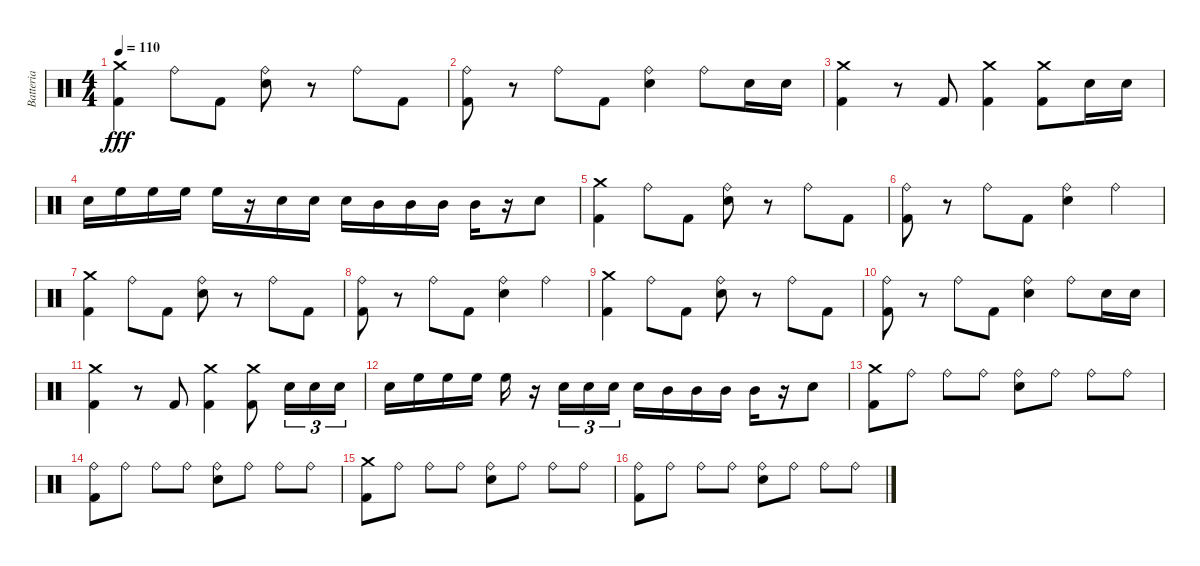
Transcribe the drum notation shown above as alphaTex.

\track ("Batteria" "Batteria") {instrument percussion}
\staff {score}
\articulation defaults
\ts (4 4)
\tempo 110
\clef neutral
\ks c
("Crash medium (hit)" "Kick (hit) 2").4{dy fff} "Ride (bell)".8 "Kick (hit) 2".8 ("Ride (bell)" "Electric Snare (hit)").8 r.8 "Ride (bell)".8 "Kick (hit) 2".8 |
("Ride (bell)" "Kick (hit) 2").8 r.8 "Ride (bell)".8 "Kick (hit) 2".8 ("Ride (bell)" "Electric Snare (hit)").4 "Ride (bell)".8 "Electric Snare (hit)".16 "Electric Snare (hit)".16 |
("Crash medium (hit)" "Kick (hit) 2").4 r.8 "Kick (hit) 2".8 ("Crash medium (hit)" "Kick (hit) 2").4 ("Crash medium (hit)" "Kick (hit) 2").8 "Electric Snare (hit)".16 "Electric Snare (hit)".16 |
"Electric Snare (hit)".16 "High Floor Tom (hit)".16 "High Floor Tom (hit)".16 "High Floor Tom (hit)".16 "High Floor Tom (hit)".16 r.16 "Electric Snare (hit)".16 "Electric Snare (hit)".16 "Electric Snare (hit)".16 "Mid Tom (hit)".16 "Mid Tom (hit)".16 "Mid Tom (hit)".16 "Mid Tom (hit)".16 r.16 "Electric Snare (hit)".8 |
("Crash medium (hit)" "Kick (hit) 2").4 "Ride (bell)".8 "Kick (hit) 2".8 ("Ride (bell)" "Electric Snare (hit)").8 r.8 "Ride (bell)".8 "Kick (hit) 2".8 |
("Ride (bell)" "Kick (hit) 2").8 r.8 "Ride (bell)".8 "Kick (hit) 2".8 ("Ride (bell)" "Electric Snare (hit)").4 "Ride (bell)".4 |
("Crash medium (hit)" "Kick (hit) 2").4 "Ride (bell)".8 "Kick (hit) 2".8 ("Ride (bell)" "Electric Snare (hit)").8 r.8 "Ride (bell)".8 "Kick (hit) 2".8 |
("Ride (bell)" "Kick (hit) 2").8 r.8 "Ride (bell)".8 "Kick (hit) 2".8 ("Ride (bell)" "Electric Snare (hit)").4 "Ride (bell)".4 |
("Crash medium (hit)" "Kick (hit) 2").4 "Ride (bell)".8 "Kick (hit) 2".8 ("Ride (bell)" "Electric Snare (hit)").8 r.8 "Ride (bell)".8 "Kick (hit) 2".8 |
("Ride (bell)" "Kick (hit) 2").8 r.8 "Ride (bell)".8 "Kick (hit) 2".8 ("Ride (bell)" "Electric Snare (hit)").4 "Ride (bell)".8 "Electric Snare (hit)".16 "Electric Snare (hit)".16 |
("Crash medium (hit)" "Kick (hit) 2").4 r.8 "Kick (hit) 2".8 ("Crash medium (hit)" "Kick (hit) 2").4 ("Crash medium (hit)" "Kick (hit) 2").8 "Electric Snare (hit)".16{tu (3 2)} "Electric Snare (hit)".16{tu (3 2)} "Electric Snare (hit)".16{tu (3 2)} |
"Electric Snare (hit)".16 "High Floor Tom (hit)".16 "High Floor Tom (hit)".16 "High Floor Tom (hit)".16 "High Floor Tom (hit)".16 r.16 "Electric Snare (hit)".16{tu (3 2)} "Electric Snare (hit)".16{tu (3 2)} "Electric Snare (hit)".16{tu (3 2)} "Electric Snare (hit)".16 "Mid Tom (hit)".16 "Mid Tom (hit)".16 "Mid Tom (hit)".16 "Mid Tom (hit)".16 r.16 "Electric Snare (hit)".8 |
("Crash medium (hit)" "Kick (hit) 2").8 "Ride (bell)".8 "Ride (bell)".8 "Ride (bell)".8 ("Ride (bell)" "Electric Snare (hit)").8 "Ride (bell)".8 "Ride (bell)".8 "Ride (bell)".8 |
("Ride (bell)" "Kick (hit) 2").8 "Ride (bell)".8 "Ride (bell)".8 "Ride (bell)".8 ("Ride (bell)" "Electric Snare (hit)").8 "Ride (bell)".8 "Ride (bell)".8 "Ride (bell)".8 |
("Crash medium (hit)" "Kick (hit) 2").8 "Ride (bell)".8 "Ride (bell)".8 "Ride (bell)".8 ("Ride (bell)" "Electric Snare (hit)").8 "Ride (bell)".8 "Ride (bell)".8 "Ride (bell)".8 |
("Ride (bell)" "Kick (hit) 2").8 "Ride (bell)".8 "Ride (bell)".8 "Ride (bell)".8 ("Ride (bell)" "Electric Snare (hit)").8 "Ride (bell)".8 "Ride (bell)".8 "Ride (bell)".8
